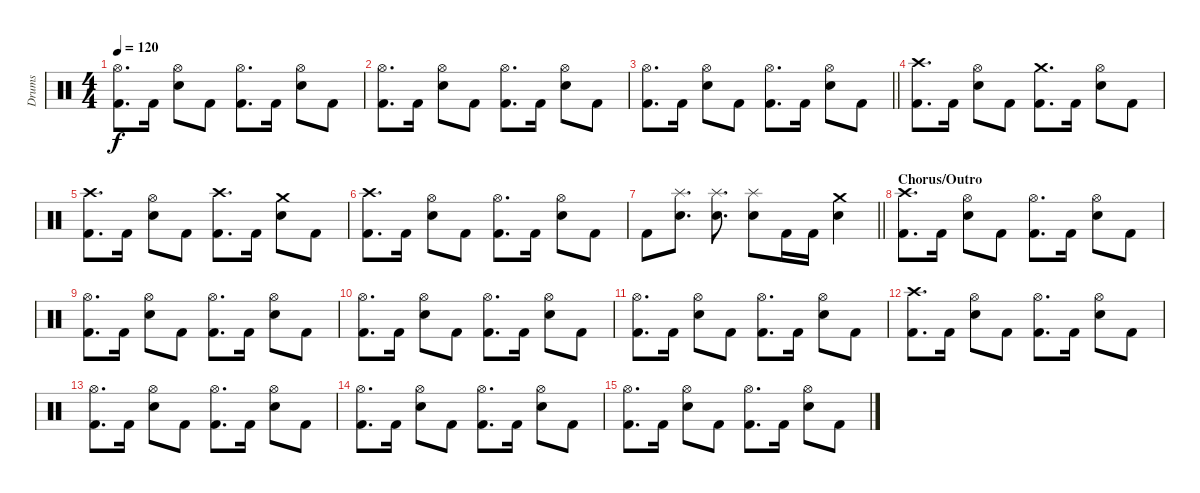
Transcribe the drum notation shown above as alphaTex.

\track ("Drums" "Drums") {instrument percussion}
\staff {score}
\articulation defaults
\ts (4 4)
\tempo 120
\clef neutral
\ks c
("Hi-Hat (open)" "Kick (hit) 2").8{d dy f} "Kick (hit) 2".16 ("Hi-Hat (open)" "Snare (hit) 2").8 "Kick (hit) 2".8 ("Hi-Hat (open)" "Kick (hit) 2").8{d} "Kick (hit) 2".16 ("Hi-Hat (open)" "Snare (hit) 2").8 "Kick (hit) 2".8 |
("Hi-Hat (open)" "Kick (hit) 2").8{d} "Kick (hit) 2".16 ("Hi-Hat (open)" "Snare (hit) 2").8 "Kick (hit) 2".8 ("Hi-Hat (open)" "Kick (hit) 2").8{d} "Kick (hit) 2".16 ("Hi-Hat (open)" "Snare (hit) 2").8 "Kick (hit) 2".8 |
\barLineRight lightlight
("Hi-Hat (open)" "Kick (hit) 2").8{d} "Kick (hit) 2".16 ("Hi-Hat (open)" "Snare (hit) 2").8 "Kick (hit) 2".8 ("Hi-Hat (open)" "Kick (hit) 2").8{d} "Kick (hit) 2".16 ("Hi-Hat (open)" "Snare (hit) 2").8 "Kick (hit) 2".8 |
("Crash high (hit)" "Kick (hit) 2").8{d} "Kick (hit) 2".16 ("Hi-Hat (open)" "Snare (hit) 2").8 "Kick (hit) 2".8 ("Crash medium (hit)" "Kick (hit) 2").8{d} "Kick (hit) 2".16 ("Hi-Hat (open)" "Snare (hit) 2").8 "Kick (hit) 2".8 |
("Crash high (hit)" "Kick (hit) 2").8{d} "Kick (hit) 2".16 ("Hi-Hat (open)" "Snare (hit) 2").8 "Kick (hit) 2".8 ("Crash high (hit)" "Kick (hit) 2").8{d} "Kick (hit) 2".16 ("Crash medium (hit)" "Snare (hit) 2").8 "Kick (hit) 2".8 |
("Crash high (hit)" "Kick (hit) 2").8{d} "Kick (hit) 2".16 ("Hi-Hat (open)" "Snare (hit) 2").8 "Kick (hit) 2".8 ("Hi-Hat (open)" "Kick (hit) 2").8{d} "Kick (hit) 2".16 ("Hi-Hat (open)" "Snare (hit) 2").8 "Kick (hit) 2".8 |
\barLineRight lightlight "Kick (hit) 2".8
("Splash (hit)" "Snare (hit) 2").8{d} ("Splash (hit)" "Snare (hit) 2").8{d} ("Splash (hit)" "Snare (hit) 2").8 "Kick (hit) 2".16 "Kick (hit) 2".16 ("Crash medium (hit)" "Snare (hit) 2").4 |
\section ("" "Chorus/Outro")
("Crash high (hit)" "Kick (hit) 2").8{d} "Kick (hit) 2".16 ("Hi-Hat (open)" "Snare (hit) 2").8 "Kick (hit) 2".8 ("Hi-Hat (open)" "Kick (hit) 2").8{d} "Kick (hit) 2".16 ("Hi-Hat (open)" "Snare (hit) 2").8 "Kick (hit) 2".8 |
("Hi-Hat (open)" "Kick (hit) 2").8{d} "Kick (hit) 2".16 ("Hi-Hat (open)" "Snare (hit) 2").8 "Kick (hit) 2".8 ("Hi-Hat (open)" "Kick (hit) 2").8{d} "Kick (hit) 2".16 ("Hi-Hat (open)" "Snare (hit) 2").8 "Kick (hit) 2".8 |
("Hi-Hat (open)" "Kick (hit) 2").8{d} "Kick (hit) 2".16 ("Hi-Hat (open)" "Snare (hit) 2").8 "Kick (hit) 2".8 ("Hi-Hat (open)" "Kick (hit) 2").8{d} "Kick (hit) 2".16 ("Hi-Hat (open)" "Snare (hit) 2").8 "Kick (hit) 2".8 |
("Hi-Hat (open)" "Kick (hit) 2").8{d} "Kick (hit) 2".16 ("Hi-Hat (open)" "Snare (hit) 2").8 "Kick (hit) 2".8 ("Hi-Hat (open)" "Kick (hit) 2").8{d} "Kick (hit) 2".16 ("Hi-Hat (open)" "Snare (hit) 2").8 "Kick (hit) 2".8 |
("Crash high (hit)" "Kick (hit) 2").8{d} "Kick (hit) 2".16 ("Hi-Hat (open)" "Snare (hit) 2").8 "Kick (hit) 2".8 ("Hi-Hat (open)" "Kick (hit) 2").8{d} "Kick (hit) 2".16 ("Hi-Hat (open)" "Snare (hit) 2").8 "Kick (hit) 2".8 |
("Hi-Hat (open)" "Kick (hit) 2").8{d} "Kick (hit) 2".16 ("Hi-Hat (open)" "Snare (hit) 2").8 "Kick (hit) 2".8 ("Hi-Hat (open)" "Kick (hit) 2").8{d} "Kick (hit) 2".16 ("Hi-Hat (open)" "Snare (hit) 2").8 "Kick (hit) 2".8 |
("Hi-Hat (open)" "Kick (hit) 2").8{d} "Kick (hit) 2".16 ("Hi-Hat (open)" "Snare (hit) 2").8 "Kick (hit) 2".8 ("Hi-Hat (open)" "Kick (hit) 2").8{d} "Kick (hit) 2".16 ("Hi-Hat (open)" "Snare (hit) 2").8 "Kick (hit) 2".8 |
("Hi-Hat (open)" "Kick (hit) 2").8{d} "Kick (hit) 2".16 ("Hi-Hat (open)" "Snare (hit) 2").8 "Kick (hit) 2".8 ("Hi-Hat (open)" "Kick (hit) 2").8{d} "Kick (hit) 2".16 ("Hi-Hat (open)" "Snare (hit) 2").8 "Kick (hit) 2".8
